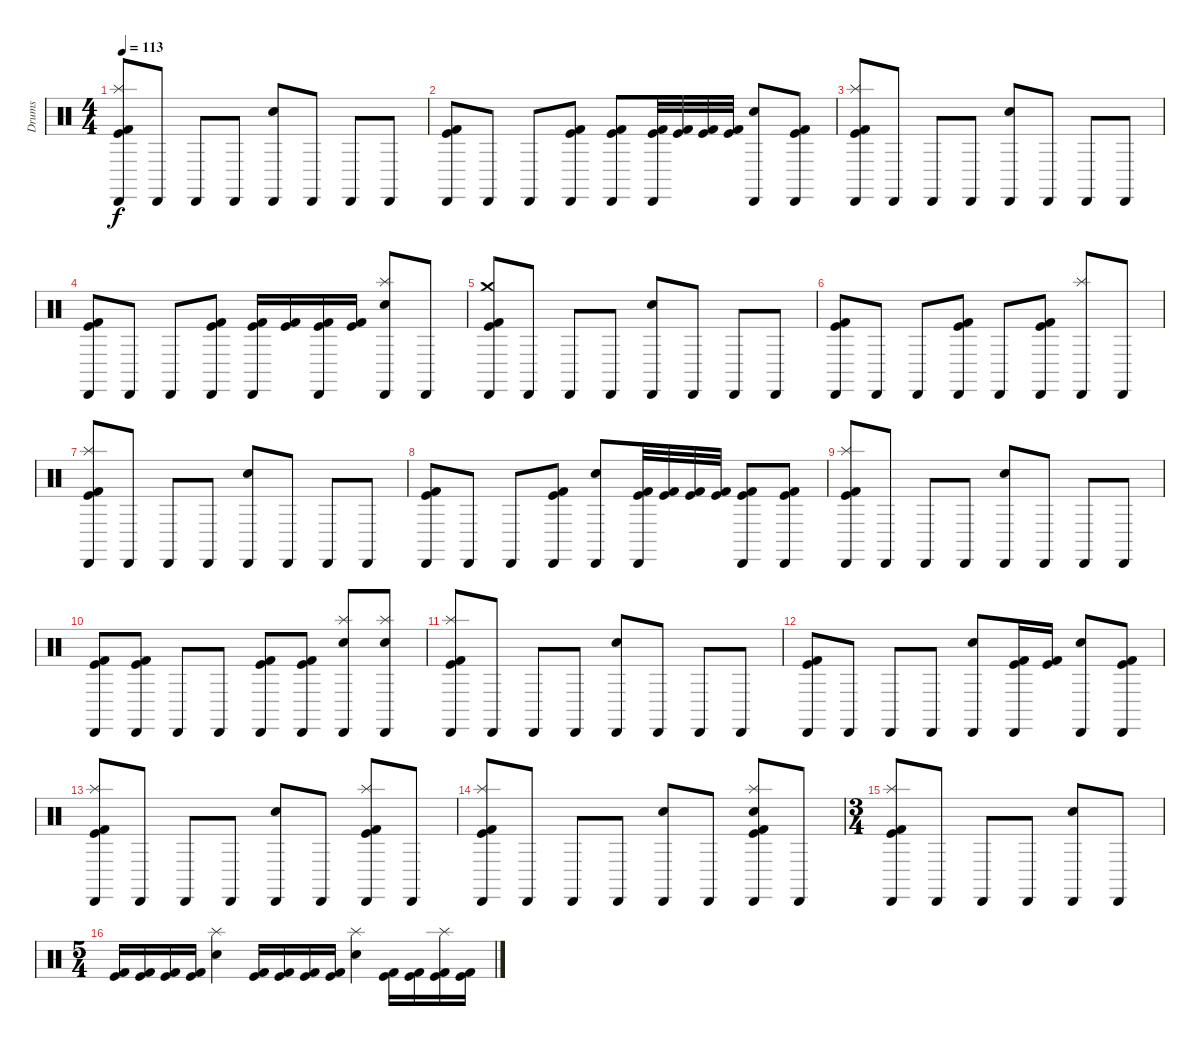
\track ("Drums" "Drums") {instrument percussion}
\staff {score}
\articulation defaults
\ts (4 4)
\tempo 113
\clef neutral
\ks c
("Kick (hit)" "Kick (hit) 2" "Cabasa (hit)" "Splash (hit)").8{dy f} "Cabasa (hit)".8 "Cabasa (hit)".8 "Cabasa (hit)".8 ("Electric Snare (hit)" "Cabasa (hit)").8 "Cabasa (hit)".8 "Cabasa (hit)".8 "Cabasa (hit)".8 |
("Kick (hit) 2" "Kick (hit)" "Cabasa (hit)").8 "Cabasa (hit)".8 "Cabasa (hit)".8 ("Kick (hit)" "Kick (hit) 2" "Cabasa (hit)").8 ("Kick (hit)" "Kick (hit) 2" "Cabasa (hit)").8 ("Kick (hit)" "Kick (hit) 2" "Cabasa (hit)").32 ("Kick (hit)" "Kick (hit) 2").32 ("Kick (hit)" "Kick (hit) 2").32 ("Kick (hit)" "Kick (hit) 2").32 ("Electric Snare (hit)" "Cabasa (hit)").8 ("Kick (hit)" "Kick (hit) 2" "Cabasa (hit)").8 |
("Kick (hit)" "Kick (hit) 2" "Splash (hit)" "Cabasa (hit)").8 "Cabasa (hit)".8 "Cabasa (hit)".8 "Cabasa (hit)".8 ("Electric Snare (hit)" "Cabasa (hit)").8 "Cabasa (hit)".8 "Cabasa (hit)".8 "Cabasa (hit)".8 |
("Cabasa (hit)" "Kick (hit)" "Kick (hit) 2").8 "Cabasa (hit)".8 "Cabasa (hit)".8 ("Kick (hit)" "Kick (hit) 2" "Cabasa (hit)").8 ("Kick (hit)" "Kick (hit) 2" "Cabasa (hit)").16 ("Kick (hit)" "Kick (hit) 2").16 ("Kick (hit)" "Kick (hit) 2" "Cabasa (hit)").16 ("Kick (hit)" "Kick (hit) 2").16 ("Splash (hit)" "Electric Snare (hit)" "Cabasa (hit)").8 "Cabasa (hit)".8 |
("Crash medium (hit)" "Kick (hit)" "Kick (hit) 2" "Cabasa (hit)").8 "Cabasa (hit)".8 "Cabasa (hit)".8 "Cabasa (hit)".8 ("Electric Snare (hit)" "Cabasa (hit)").8 "Cabasa (hit)".8 "Cabasa (hit)".8 "Cabasa (hit)".8 |
("Kick (hit)" "Kick (hit) 2" "Cabasa (hit)").8 "Cabasa (hit)".8 "Cabasa (hit)".8 ("Kick (hit)" "Kick (hit) 2" "Cabasa (hit)").8 "Cabasa (hit)".8 ("Kick (hit)" "Kick (hit) 2" "Cabasa (hit)").8 ("Splash (hit)" "Cabasa (hit)").8 "Cabasa (hit)".8 |
("Splash (hit)" "Kick (hit) 2" "Kick (hit)" "Cabasa (hit)").8 "Cabasa (hit)".8 "Cabasa (hit)".8 "Cabasa (hit)".8 ("Electric Snare (hit)" "Cabasa (hit)").8 "Cabasa (hit)".8 "Cabasa (hit)".8 "Cabasa (hit)".8 |
("Kick (hit)" "Kick (hit) 2" "Cabasa (hit)").8 "Cabasa (hit)".8 "Cabasa (hit)".8 ("Kick (hit) 2" "Kick (hit)" "Cabasa (hit)").8 ("Electric Snare (hit)" "Cabasa (hit)").8 ("Kick (hit)" "Kick (hit) 2" "Cabasa (hit)").32 ("Kick (hit)" "Kick (hit) 2").32 ("Kick (hit)" "Kick (hit) 2").32 ("Kick (hit)" "Kick (hit) 2").32 ("Kick (hit)" "Kick (hit) 2" "Cabasa (hit)").8 ("Kick (hit)" "Kick (hit) 2" "Cabasa (hit)").8 |
("Splash (hit)" "Kick (hit)" "Kick (hit) 2" "Cabasa (hit)").8 "Cabasa (hit)".8 "Cabasa (hit)".8 "Cabasa (hit)".8 ("Electric Snare (hit)" "Cabasa (hit)").8 "Cabasa (hit)".8 "Cabasa (hit)".8 "Cabasa (hit)".8 |
("Kick (hit) 2" "Kick (hit)" "Cabasa (hit)").8 ("Cabasa (hit)" "Kick (hit) 2" "Kick (hit)").8 "Cabasa (hit)".8 "Cabasa (hit)".8 ("Cabasa (hit)" "Kick (hit)" "Kick (hit) 2").8 ("Kick (hit)" "Kick (hit) 2" "Cabasa (hit)").8 ("Splash (hit)" "Electric Snare (hit)" "Cabasa (hit)").8 ("Splash (hit)" "Electric Snare (hit)" "Cabasa (hit)").8 |
("Splash (hit)" "Kick (hit)" "Kick (hit) 2" "Cabasa (hit)").8 "Cabasa (hit)".8 "Cabasa (hit)".8 "Cabasa (hit)".8 ("Electric Snare (hit)" "Cabasa (hit)").8 "Cabasa (hit)".8 "Cabasa (hit)".8 "Cabasa (hit)".8 |
("Cabasa (hit)" "Kick (hit)" "Kick (hit) 2").8 "Cabasa (hit)".8 "Cabasa (hit)".8 "Cabasa (hit)".8 ("Cabasa (hit)" "Electric Snare (hit)").8 ("Kick (hit)" "Kick (hit) 2" "Cabasa (hit)").16 ("Kick (hit)" "Kick (hit) 2").16 ("Electric Snare (hit)" "Cabasa (hit)").8 ("Kick (hit)" "Kick (hit) 2" "Cabasa (hit)").8 |
("Splash (hit)" "Kick (hit)" "Kick (hit) 2" "Cabasa (hit)").8 "Cabasa (hit)".8 "Cabasa (hit)".8 "Cabasa (hit)".8 ("Electric Snare (hit)" "Cabasa (hit)").8 "Cabasa (hit)".8 ("Kick (hit) 2" "Kick (hit)" "Cabasa (hit)" "Splash (hit)").8 "Cabasa (hit)".8 |
("Kick (hit) 2" "Kick (hit)" "Cabasa (hit)" "Splash (hit)").8 "Cabasa (hit)".8 "Cabasa (hit)".8 "Cabasa (hit)".8 ("Electric Snare (hit)" "Cabasa (hit)").8 "Cabasa (hit)".8 ("Kick (hit) 2" "Kick (hit)" "Electric Snare (hit)" "Splash (hit)" "Cabasa (hit)").8 "Cabasa (hit)".8 |
\ts (3 4)
("Kick (hit)" "Kick (hit) 2" "Cabasa (hit)" "Splash (hit)").8 "Cabasa (hit)".8 "Cabasa (hit)".8 "Cabasa (hit)".8 ("Electric Snare (hit)" "Cabasa (hit)").8 "Cabasa (hit)".8 |
\ts (5 4)
("Kick (hit)" "Kick (hit) 2").16 ("Kick (hit)" "Kick (hit) 2").16 ("Kick (hit)" "Kick (hit) 2").16 ("Kick (hit)" "Kick (hit) 2").16 ("Splash (hit)" "Electric Snare (hit)").4 ("Kick (hit)" "Kick (hit) 2").16 ("Kick (hit)" "Kick (hit) 2").16 ("Kick (hit)" "Kick (hit) 2").16 ("Kick (hit)" "Kick (hit) 2").16 ("Splash (hit)" "Electric Snare (hit)").4 ("Kick (hit)" "Kick (hit) 2").16 ("Kick (hit)" "Kick (hit) 2").16 ("Splash (hit)" "Kick (hit)" "Kick (hit) 2").16 ("Kick (hit)" "Kick (hit) 2").16
